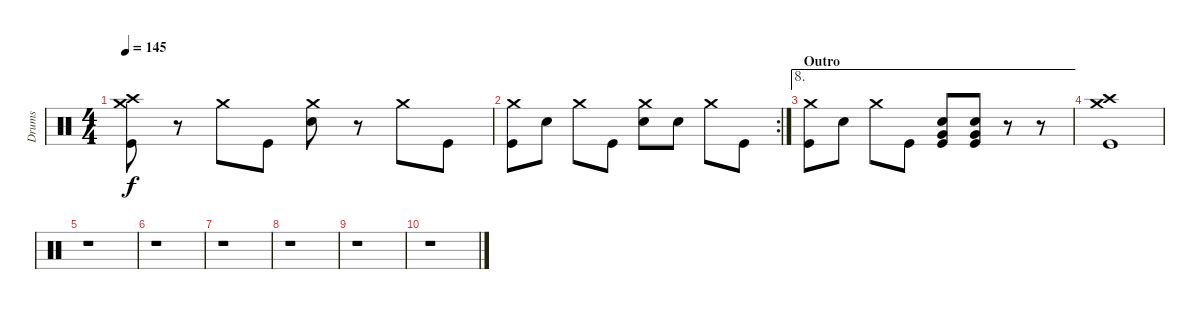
\track ("Drums" "Drums") {instrument percussion}
\staff {score}
\articulation defaults
\ts (4 4)
\tempo 145
\clef neutral
\ks c
("Crash medium (hit)" "Crash high (hit)" "Kick (hit)").8{dy f} r.8 "Crash medium (hit)".8 "Kick (hit)".8 ("Crash medium (hit)" "Electric Snare (hit)").8 r.8 "Crash medium (hit)".8 "Kick (hit)".8 |
\rc 2
("Crash medium (hit)" "Kick (hit)").8 "Electric Snare (hit)".8 "Crash medium (hit)".8 "Kick (hit)".8 ("Crash medium (hit)" "Electric Snare (hit)").8 "Electric Snare (hit)".8 "Crash medium (hit)".8 "Kick (hit)".8 |
\ae 8
\section ("" "Outro")
("Crash medium (hit)" "Kick (hit)").8 "Electric Snare (hit)".8 "Crash medium (hit)".8 "Kick (hit)".8 ("Electric Snare (hit)" "Very Low Tom (hit)" "Kick (hit)").8 ("Electric Snare (hit)" "Very Low Tom (hit)" "Kick (hit)").8 r.8 r.8 |
("Crash medium (hit)" "Crash high (hit)" "Kick (hit)").1 |
r.1 |
r.1 |
r.1 |
r.1 |
r.1 |
r.1
